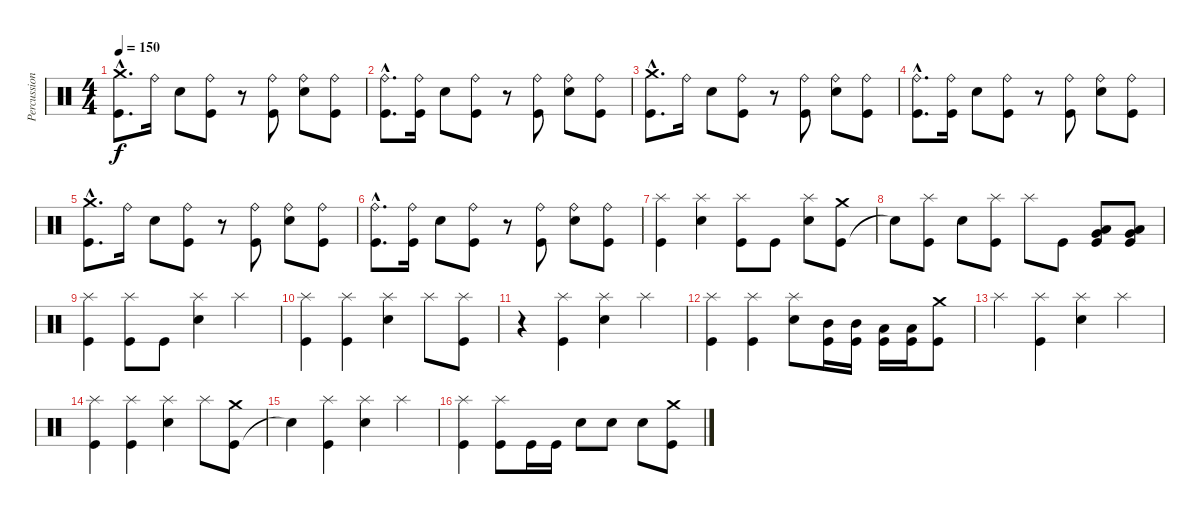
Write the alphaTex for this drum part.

\track ("Percussions" "Percussion") {instrument percussion}
\staff {score}
\articulation defaults
\ts (4 4)
\tempo 150
\clef neutral
\ks c
("Kick (hit)"{hac} "Crash medium (hit)"{hac}).8{d dy f} "Ride (bell)".16 "Electric Snare (hit)".8 ("Kick (hit)" "Ride (bell)").8 r.8 ("Kick (hit)" "Ride (bell)").8 ("Electric Snare (hit)" "Ride (bell)").8 ("Kick (hit)" "Ride (bell)").8 |
("Kick (hit)"{hac} "Ride (bell)"{hac}).8{d} ("Kick (hit)" "Ride (bell)").16 "Electric Snare (hit)".8 ("Kick (hit)" "Ride (bell)").8 r.8 ("Kick (hit)" "Ride (bell)").8 ("Electric Snare (hit)" "Ride (bell)").8 ("Kick (hit)" "Ride (bell)").8 |
("Kick (hit)"{hac} "Crash medium (hit)"{hac}).8{d} "Ride (bell)".16 "Electric Snare (hit)".8 ("Kick (hit)" "Ride (bell)").8 r.8 ("Kick (hit)" "Ride (bell)").8 ("Electric Snare (hit)" "Ride (bell)").8 ("Kick (hit)" "Ride (bell)").8 |
("Kick (hit)"{hac} "Ride (bell)"{hac}).8{d} ("Kick (hit)" "Ride (bell)").16 "Electric Snare (hit)".8 ("Kick (hit)" "Ride (bell)").8 r.8 ("Kick (hit)" "Ride (bell)").8 ("Electric Snare (hit)" "Ride (bell)").8 ("Kick (hit)" "Ride (bell)").8 |
("Kick (hit)"{hac} "Crash medium (hit)"{hac}).8{d} "Ride (bell)".16 "Electric Snare (hit)".8 ("Kick (hit)" "Ride (bell)").8 r.8 ("Kick (hit)" "Ride (bell)").8 ("Electric Snare (hit)" "Ride (bell)").8 ("Kick (hit)" "Ride (bell)").8 |
("Kick (hit)"{hac} "Ride (bell)"{hac}).8{d} ("Kick (hit)" "Ride (bell)").16 "Electric Snare (hit)".8 ("Kick (hit)" "Ride (bell)").8 r.8 ("Kick (hit)" "Ride (bell)").8 ("Electric Snare (hit)" "Ride (bell)").8 ("Kick (hit)" "Ride (bell)").8 |
("Kick (hit)" "Splash (hit)").4 ("Electric Snare (hit)" "Splash (hit)").4 ("Kick (hit)" "Splash (hit)").8 "Kick (hit)".8 ("Electric Snare (hit)" "Splash (hit)").8 ("Kick (hit)" "Crash medium (hit)").8 |
"Snare (hit)"{t}.8 ("Kick (hit)" "Splash (hit)").8 "Electric Snare (hit)".8 ("Kick (hit)" "Splash (hit)").8 "Splash (hit)".8 "Kick (hit)".8 ("Kick (hit)" "Low Tom (hit)" "Very Low Tom (hit)").8 ("Kick (hit)" "Very Low Tom (hit)" "Low Floor Tom (hit)").8 |
("Kick (hit)" "Splash (hit)").4 ("Kick (hit)" "Splash (hit)").8 "Kick (hit)".8 ("Electric Snare (hit)" "Splash (hit)").4 "Splash (hit)".4 |
("Kick (hit)" "Splash (hit)").4 ("Kick (hit)" "Splash (hit)").4 ("Electric Snare (hit)" "Splash (hit)").4 "Splash (hit)".8 ("Kick (hit)" "Splash (hit)").8 |
r.4 ("Kick (hit)" "Splash (hit)").4 ("Electric Snare (hit)" "Splash (hit)").4 "Splash (hit)".4 |
("Kick (hit)" "Splash (hit)").4 ("Kick (hit)" "Splash (hit)").4 ("Electric Snare (hit)" "Splash (hit)").8 ("Kick (hit)" "Mid Tom (hit)").16 ("Kick (hit)" "Mid Tom (hit)").16 ("Kick (hit)" "Low Tom (hit)").16 ("Kick (hit)" "Low Tom (hit)").16 ("Kick (hit)" "Crash medium (hit)").8 |
"Splash (hit)".4 ("Kick (hit)" "Splash (hit)").4 ("Electric Snare (hit)" "Splash (hit)").4 "Splash (hit)".4 |
("Kick (hit)" "Splash (hit)").4 ("Kick (hit)" "Splash (hit)").4 ("Electric Snare (hit)" "Splash (hit)").4 "Splash (hit)".8 ("Kick (hit)" "Crash medium (hit)").8 |
"Snare (hit)"{t}.4 ("Kick (hit)" "Splash (hit)").4 ("Electric Snare (hit)" "Splash (hit)").4 "Splash (hit)".4 |
("Kick (hit)" "Splash (hit)").4 ("Kick (hit)" "Splash (hit)").8 "Kick (hit)".16 "Kick (hit)".16 "Electric Snare (hit)".8 "Electric Snare (hit)".8 "Electric Snare (hit)".8 ("Kick (hit)" "Crash medium (hit)").8
